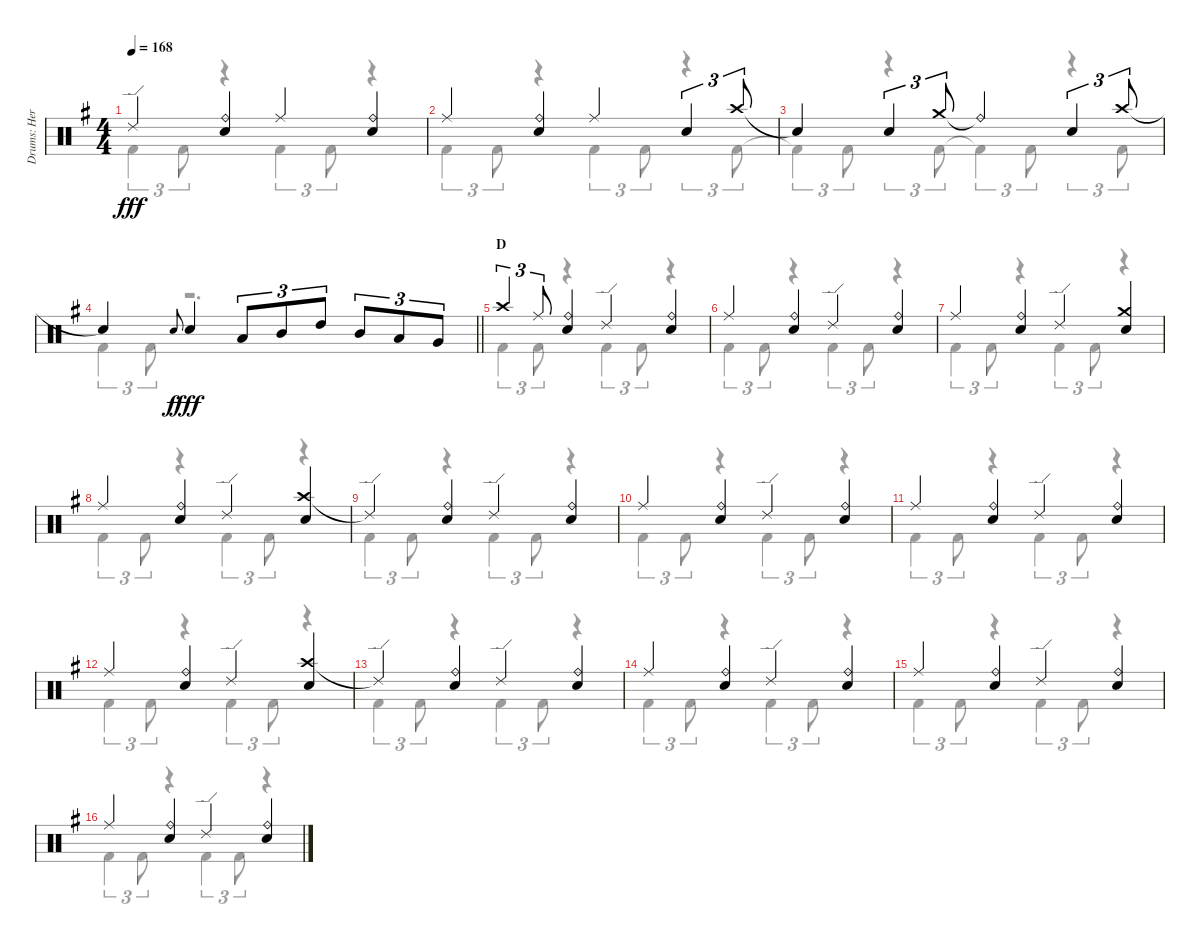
\track ("Drums: Herman" "Drums: Her") {instrument percussion}
\staff {score}
\articulation defaults
\voice
\ts (4 4)
\tempo 168
\clef neutral
\ks g "Ride (edge) 2".4{dy fff}
("Ride (bell)" "Snare (hit) 2").4 "Ride (middle)".4 ("Ride (bell)" "Snare (hit) 2").4 |
"Ride (middle)".4 ("Ride (bell)" "Snare (hit) 2").4 "Ride (middle)".4 "Snare (hit) 2".4{tu (3 2)} "Crash high (hit)".8{tu (3 2)} |
"Snare (hit)"{t}.4 "Snare (hit) 2".4{tu (3 2)} "Crash medium (hit)".8{tu (3 2)} "Ride (bell)"{t}.4 "Snare (hit) 2".4{tu (3 2)} "Crash high (hit)".8{tu (3 2)} |
\barLineRight lightlight "Snare (hit)"{t}.4 "Electric Snare (hit)".8{gr onbeat dy f} "Snare (hit) 2".4{dy fff} "Low Tom (hit)".8{tu (3 2)} "Mid Tom (hit)".8{tu (3 2)} "High Tom (hit)".8{tu (3 2)} "Mid Tom (hit)".8{tu (3 2)} "Low Tom (hit)".8{tu (3 2)} "Very Low Tom (hit)".8{tu (3 2)}
|
\section ("" "D")
"Crash high (hit)".4{tu (3 2)} "Ride (middle)".8{tu (3 2)} ("Ride (bell)" "Snare (hit) 2").4 "Ride (edge) 2".4 ("Ride (bell)" "Snare (hit) 2").4 |
"Ride (middle)".4 ("Ride (bell)" "Snare (hit) 2").4 "Ride (edge) 2".4 ("Ride (bell)" "Snare (hit) 2").4 |
"Ride (middle)".4 ("Ride (bell)" "Snare (hit) 2").4 "Ride (edge) 2".4 ("Crash medium (hit)" "Snare (hit) 2").4 |
"Ride (middle)".4 ("Ride (bell)" "Snare (hit) 2").4 "Ride (edge) 2".4 ("Crash high (hit)" "Snare (hit) 2").4 |
"Ride (edge) 2"{t}.4 ("Ride (bell)" "Snare (hit) 2").4 "Ride (edge) 2".4 ("Ride (bell)" "Snare (hit) 2").4 |
"Ride (middle)".4 ("Ride (bell)" "Snare (hit) 2").4 "Ride (edge) 2".4 ("Ride (bell)" "Snare (hit) 2").4 |
"Ride (middle)".4 ("Ride (bell)" "Snare (hit) 2").4 "Ride (edge) 2".4 ("Ride (bell)" "Snare (hit) 2").4 |
"Ride (middle)".4 ("Ride (bell)" "Snare (hit) 2").4 "Ride (edge) 2".4 ("Crash high (hit)" "Snare (hit) 2").4 |
"Ride (edge) 2"{t}.4 ("Ride (bell)" "Snare (hit) 2").4 "Ride (edge) 2".4 ("Ride (bell)" "Snare (hit) 2").4 |
"Ride (middle)".4 ("Ride (bell)" "Snare (hit) 2").4 "Ride (edge) 2".4 ("Ride (bell)" "Snare (hit) 2").4 |
"Ride (middle)".4 ("Ride (bell)" "Snare (hit) 2").4 "Ride (edge) 2".4 ("Ride (bell)" "Snare (hit) 2").4 |
"Ride (middle)".4 ("Ride (bell)" "Snare (hit) 2").4 "Ride (edge) 2".4 ("Ride (bell)" "Snare (hit) 2").4
\voice
\clef neutral
\ottava regular
\simile none
\ks g "Kick (hit) 2".4{tu (3 2) dy fff} "Kick (hit) 2".8{tu (3 2)}
r.4 "Kick (hit) 2".4{tu (3 2)} "Kick (hit) 2".8{tu (3 2)} r.4 |
"Kick (hit) 2".4{tu (3 2)} "Kick (hit) 2".8{tu (3 2)} r.4 "Kick (hit) 2".4{tu (3 2)} "Kick (hit) 2".8{tu (3 2)} r.4{tu (3 2)} "Kick (hit) 2".8{tu (3 2)} |
"Kick (hit) 2"{t}.4{tu (3 2)} "Kick (hit) 2".8{tu (3 2)} r.4{tu (3 2)} "Kick (hit) 2".8{tu (3 2)} "Kick (hit) 2"{t}.4{tu (3 2)} "Kick (hit) 2".8{tu (3 2)} r.4{tu (3 2)} "Kick (hit) 2".8{tu (3 2)} |
\barLineRight lightlight "Kick (hit) 2".4{tu (3 2)} "Kick (hit) 2".8{tu (3 2)}
r.2{d} |
"Kick (hit) 2".4{tu (3 2)} "Kick (hit) 2".8{tu (3 2)} r.4 "Kick (hit) 2".4{tu (3 2)} "Kick (hit) 2".8{tu (3 2)} r.4 |
"Kick (hit) 2".4{tu (3 2)} "Kick (hit) 2".8{tu (3 2)} r.4 "Kick (hit) 2".4{tu (3 2)} "Kick (hit) 2".8{tu (3 2)} r.4 |
"Kick (hit) 2".4{tu (3 2)} "Kick (hit) 2".8{tu (3 2)} r.4 "Kick (hit) 2".4{tu (3 2)} "Kick (hit) 2".8{tu (3 2)} r.4 |
"Kick (hit) 2".4{tu (3 2)} "Kick (hit) 2".8{tu (3 2)} r.4 "Kick (hit) 2".4{tu (3 2)} "Kick (hit) 2".8{tu (3 2)} r.4 |
"Kick (hit) 2".4{tu (3 2)} "Kick (hit) 2".8{tu (3 2)} r.4 "Kick (hit) 2".4{tu (3 2)} "Kick (hit) 2".8{tu (3 2)} r.4 |
"Kick (hit) 2".4{tu (3 2)} "Kick (hit) 2".8{tu (3 2)} r.4 "Kick (hit) 2".4{tu (3 2)} "Kick (hit) 2".8{tu (3 2)} r.4 |
"Kick (hit) 2".4{tu (3 2)} "Kick (hit) 2".8{tu (3 2)} r.4 "Kick (hit) 2".4{tu (3 2)} "Kick (hit) 2".8{tu (3 2)} r.4 |
"Kick (hit) 2".4{tu (3 2)} "Kick (hit) 2".8{tu (3 2)} r.4 "Kick (hit) 2".4{tu (3 2)} "Kick (hit) 2".8{tu (3 2)} r.4 |
"Kick (hit) 2".4{tu (3 2)} "Kick (hit) 2".8{tu (3 2)} r.4 "Kick (hit) 2".4{tu (3 2)} "Kick (hit) 2".8{tu (3 2)} r.4 |
"Kick (hit) 2".4{tu (3 2)} "Kick (hit) 2".8{tu (3 2)} r.4 "Kick (hit) 2".4{tu (3 2)} "Kick (hit) 2".8{tu (3 2)} r.4 |
"Kick (hit) 2".4{tu (3 2)} "Kick (hit) 2".8{tu (3 2)} r.4 "Kick (hit) 2".4{tu (3 2)} "Kick (hit) 2".8{tu (3 2)} r.4 |
"Kick (hit) 2".4{tu (3 2)} "Kick (hit) 2".8{tu (3 2)} r.4 "Kick (hit) 2".4{tu (3 2)} "Kick (hit) 2".8{tu (3 2)} r.4
